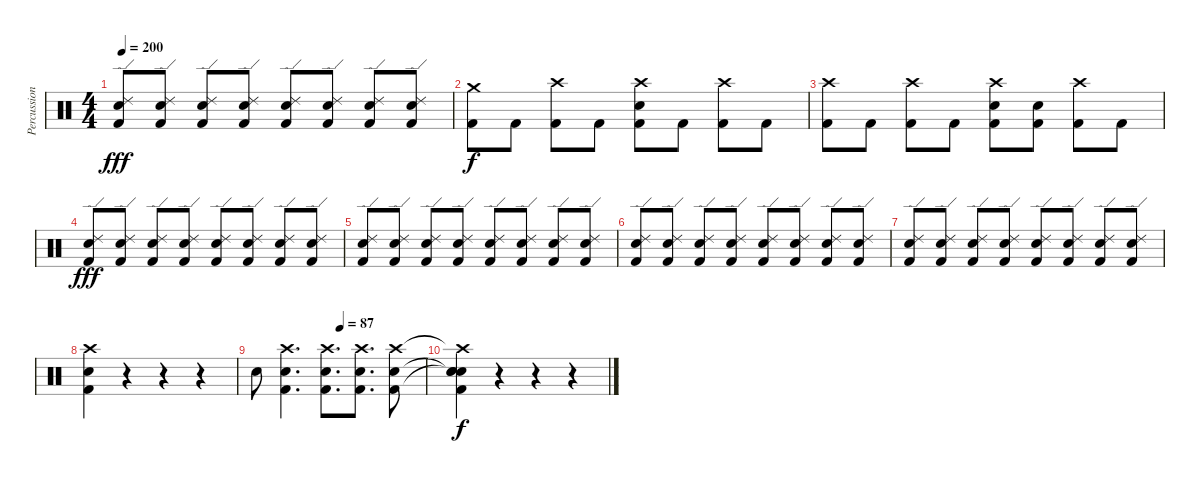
\track ("Percussion" "Percussion") {instrument percussion}
\staff {score}
\articulation defaults
\ts (4 4)
\tempo 200
\clef neutral
\ks c
("Ride (edge) 2" "Electric Snare (hit)" "Kick (hit) 2").8{dy fff} ("Ride (edge) 2" "Electric Snare (hit)" "Kick (hit) 2").8 ("Ride (edge) 2" "Electric Snare (hit)" "Kick (hit) 2").8 ("Ride (edge) 2" "Electric Snare (hit)" "Kick (hit) 2").8 ("Ride (edge) 2" "Electric Snare (hit)" "Kick (hit) 2").8 ("Ride (edge) 2" "Electric Snare (hit)" "Kick (hit) 2").8 ("Ride (edge) 2" "Electric Snare (hit)" "Kick (hit) 2").8 ("Ride (edge) 2" "Electric Snare (hit)" "Kick (hit) 2").8 |
("Crash medium (hit)" "Kick (hit) 2").8{dy f} "Kick (hit) 2".8 ("Crash high (hit)" "Kick (hit) 2").8 "Kick (hit) 2".8 ("Crash high (hit)" "Electric Snare (hit)" "Kick (hit) 2").8 "Kick (hit) 2".8 ("Crash high (hit)" "Kick (hit) 2").8 "Kick (hit) 2".8 |
("Crash high (hit)" "Kick (hit) 2").8 "Kick (hit) 2".8 ("Crash high (hit)" "Kick (hit) 2").8 "Kick (hit) 2".8 ("Crash high (hit)" "Electric Snare (hit)" "Kick (hit) 2").8 ("Electric Snare (hit)" "Kick (hit) 2").8 ("Crash high (hit)" "Kick (hit) 2").8 "Kick (hit) 2".8 |
("Ride (edge) 2" "Electric Snare (hit)" "Kick (hit) 2").8{dy fff} ("Ride (edge) 2" "Electric Snare (hit)" "Kick (hit) 2").8 ("Ride (edge) 2" "Electric Snare (hit)" "Kick (hit) 2").8 ("Ride (edge) 2" "Electric Snare (hit)" "Kick (hit) 2").8 ("Ride (edge) 2" "Electric Snare (hit)" "Kick (hit) 2").8 ("Ride (edge) 2" "Electric Snare (hit)" "Kick (hit) 2").8 ("Ride (edge) 2" "Electric Snare (hit)" "Kick (hit) 2").8 ("Ride (edge) 2" "Electric Snare (hit)" "Kick (hit) 2").8 |
("Ride (edge) 2" "Electric Snare (hit)" "Kick (hit) 2").8 ("Ride (edge) 2" "Electric Snare (hit)" "Kick (hit) 2").8 ("Ride (edge) 2" "Electric Snare (hit)" "Kick (hit) 2").8 ("Ride (edge) 2" "Electric Snare (hit)" "Kick (hit) 2").8 ("Ride (edge) 2" "Electric Snare (hit)" "Kick (hit) 2").8 ("Ride (edge) 2" "Electric Snare (hit)" "Kick (hit) 2").8 ("Ride (edge) 2" "Electric Snare (hit)" "Kick (hit) 2").8 ("Ride (edge) 2" "Electric Snare (hit)" "Kick (hit) 2").8 |
("Ride (edge) 2" "Electric Snare (hit)" "Kick (hit) 2").8 ("Ride (edge) 2" "Electric Snare (hit)" "Kick (hit) 2").8 ("Ride (edge) 2" "Electric Snare (hit)" "Kick (hit) 2").8 ("Ride (edge) 2" "Electric Snare (hit)" "Kick (hit) 2").8 ("Ride (edge) 2" "Electric Snare (hit)" "Kick (hit) 2").8 ("Ride (edge) 2" "Electric Snare (hit)" "Kick (hit) 2").8 ("Ride (edge) 2" "Electric Snare (hit)" "Kick (hit) 2").8 ("Ride (edge) 2" "Electric Snare (hit)" "Kick (hit) 2").8 |
("Ride (edge) 2" "Electric Snare (hit)" "Kick (hit) 2").8 ("Ride (edge) 2" "Electric Snare (hit)" "Kick (hit) 2").8 ("Ride (edge) 2" "Electric Snare (hit)" "Kick (hit) 2").8 ("Ride (edge) 2" "Electric Snare (hit)" "Kick (hit) 2").8 ("Ride (edge) 2" "Electric Snare (hit)" "Kick (hit) 2").8 ("Ride (edge) 2" "Electric Snare (hit)" "Kick (hit) 2").8 ("Ride (edge) 2" "Electric Snare (hit)" "Kick (hit) 2").8 ("Ride (edge) 2" "Electric Snare (hit)" "Kick (hit) 2").8 |
("Crash high (hit)" "Electric Snare (hit)" "Kick (hit) 2").4 r.4 r.4 r.4 |
\tempo (87 0.5)
"Electric Snare (hit)".8 ("Crash high (hit)" "Electric Snare (hit)" "Kick (hit) 2").4{d} ("Crash high (hit)" "Electric Snare (hit)" "Kick (hit) 2").8{d} ("Crash high (hit)" "Electric Snare (hit)" "Kick (hit) 2").8{d} ("Crash high (hit)" "Electric Snare (hit)" "Kick (hit) 2").8 |
("Crash high (hit)"{t} "Snare (hit)"{t} "Snare (hit)"{t} "Electric Snare (hit)" "Kick (hit) 2").4{dy f} r.4 r.4 r.4
